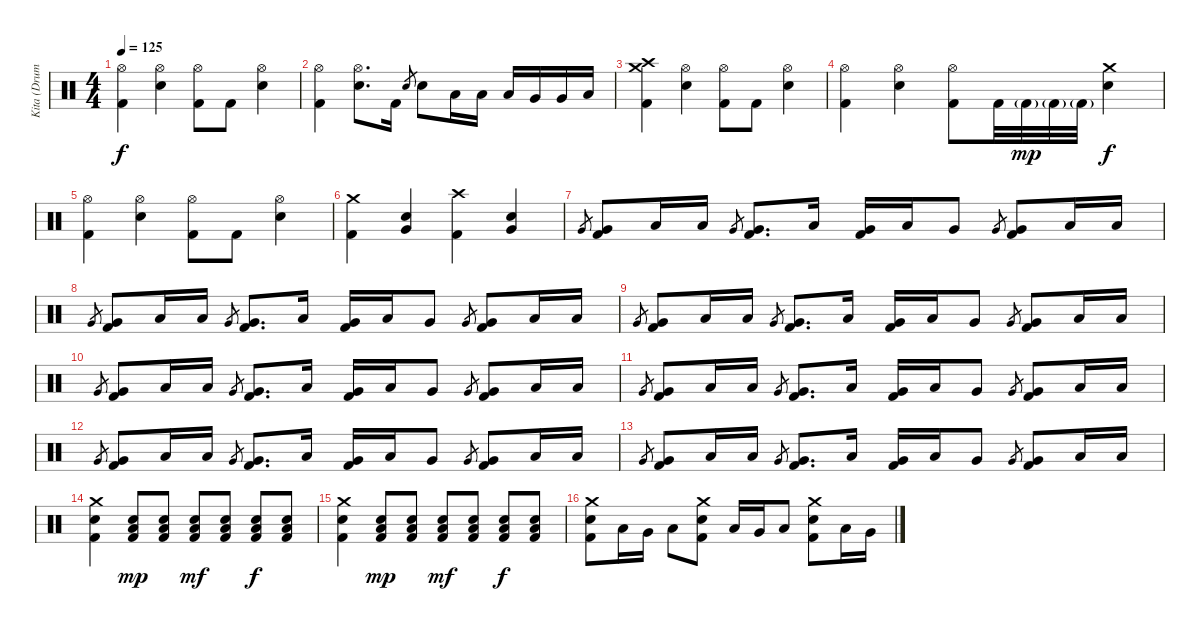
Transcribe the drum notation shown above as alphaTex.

\track ("Kita (Drums)" "Kita (Drum") {instrument percussion}
\staff {score}
\articulation defaults
\ts (4 4)
\tempo 125
\clef neutral
\ks c
("Hi-Hat (open)" "Kick (hit) 2").4{dy f} ("Hi-Hat (open)" "Electric Snare (hit)").4 ("Hi-Hat (open)" "Kick (hit) 2").8 "Kick (hit) 2".8 ("Hi-Hat (open)" "Electric Snare (hit)").4 |
("Hi-Hat (open)" "Kick (hit) 2").4 ("Hi-Hat (open)" "Electric Snare (hit)").8{d} "Kick (hit) 2".16 "Electric Snare (hit)".8{gr} "Electric Snare (hit)".8 "Low Tom (hit)".16 "Low Tom (hit)".16 "Low Tom (hit)".16 "Very Low Tom (hit)".16 "Very Low Tom (hit)".16 "Low Floor Tom (hit)".16 |
("Crash medium (hit)" "Crash high (hit)" "Kick (hit) 2").4 ("Hi-Hat (open)" "Electric Snare (hit)").4 ("Hi-Hat (open)" "Kick (hit) 2").8 "Kick (hit) 2".8 ("Hi-Hat (open)" "Electric Snare (hit)").4 |
("Hi-Hat (open)" "Kick (hit) 2").4 ("Hi-Hat (open)" "Electric Snare (hit)").4 ("Hi-Hat (open)" "Kick (hit) 2").8 "Kick (hit) 2".32 "Kick (hit) 2"{g}.32{dy mp} "Kick (hit) 2"{g}.32 "Kick (hit) 2"{g}.32 ("Crash medium (hit)" "Electric Snare (hit)").4{dy f} |
("Hi-Hat (open)" "Kick (hit) 2").4 ("Hi-Hat (open)" "Electric Snare (hit)").4 ("Hi-Hat (open)" "Kick (hit) 2").8 "Kick (hit) 2".8 ("Hi-Hat (open)" "Electric Snare (hit)").4 |
("Crash medium (hit)" "Kick (hit) 2").4 ("Very Low Tom (hit)" "Electric Snare (hit)").4 ("Crash high (hit)" "Kick (hit) 2").4 ("Very Low Tom (hit)" "Electric Snare (hit)").4 |
"Very Low Tom (hit)".8{gr} ("Very Low Tom (hit)" "Kick (hit) 2").8 "Low Floor Tom (hit)".16 "Low Floor Tom (hit)".16 "Very Low Tom (hit)".8{gr} ("Very Low Tom (hit)" "Kick (hit) 2").8{d} "Low Floor Tom (hit)".16 ("Very Low Tom (hit)" "Kick (hit) 2").16 "Low Floor Tom (hit)".16 "Very Low Tom (hit)".8 "Very Low Tom (hit)".8{gr} ("Very Low Tom (hit)" "Kick (hit) 2").8 "Low Floor Tom (hit)".16 "Low Floor Tom (hit)".16 |
"Very Low Tom (hit)".8{gr} ("Very Low Tom (hit)" "Kick (hit) 2").8 "Low Floor Tom (hit)".16 "Low Floor Tom (hit)".16 "Very Low Tom (hit)".8{gr} ("Very Low Tom (hit)" "Kick (hit) 2").8{d} "Low Floor Tom (hit)".16 ("Very Low Tom (hit)" "Kick (hit) 2").16 "Low Floor Tom (hit)".16 "Very Low Tom (hit)".8 "Very Low Tom (hit)".8{gr} ("Very Low Tom (hit)" "Kick (hit) 2").8 "Low Floor Tom (hit)".16 "Low Floor Tom (hit)".16 |
"Very Low Tom (hit)".8{gr} ("Very Low Tom (hit)" "Kick (hit) 2").8 "Low Floor Tom (hit)".16 "Low Floor Tom (hit)".16 "Very Low Tom (hit)".8{gr} ("Very Low Tom (hit)" "Kick (hit) 2").8{d} "Low Floor Tom (hit)".16 ("Very Low Tom (hit)" "Kick (hit) 2").16 "Low Floor Tom (hit)".16 "Very Low Tom (hit)".8 "Very Low Tom (hit)".8{gr} ("Very Low Tom (hit)" "Kick (hit) 2").8 "Low Floor Tom (hit)".16 "Low Floor Tom (hit)".16 |
"Very Low Tom (hit)".8{gr} ("Very Low Tom (hit)" "Kick (hit) 2").8 "Low Floor Tom (hit)".16 "Low Floor Tom (hit)".16 "Very Low Tom (hit)".8{gr} ("Very Low Tom (hit)" "Kick (hit) 2").8{d} "Low Floor Tom (hit)".16 ("Very Low Tom (hit)" "Kick (hit) 2").16 "Low Floor Tom (hit)".16 "Very Low Tom (hit)".8 "Very Low Tom (hit)".8{gr} ("Very Low Tom (hit)" "Kick (hit) 2").8 "Low Floor Tom (hit)".16 "Low Floor Tom (hit)".16 |
"Very Low Tom (hit)".8{gr} ("Very Low Tom (hit)" "Kick (hit) 2").8 "Low Floor Tom (hit)".16 "Low Floor Tom (hit)".16 "Very Low Tom (hit)".8{gr} ("Very Low Tom (hit)" "Kick (hit) 2").8{d} "Low Floor Tom (hit)".16 ("Very Low Tom (hit)" "Kick (hit) 2").16 "Low Floor Tom (hit)".16 "Very Low Tom (hit)".8 "Very Low Tom (hit)".8{gr} ("Very Low Tom (hit)" "Kick (hit) 2").8 "Low Floor Tom (hit)".16 "Low Floor Tom (hit)".16 |
"Very Low Tom (hit)".8{gr} ("Very Low Tom (hit)" "Kick (hit) 2").8 "Low Floor Tom (hit)".16 "Low Floor Tom (hit)".16 "Very Low Tom (hit)".8{gr} ("Very Low Tom (hit)" "Kick (hit) 2").8{d} "Low Floor Tom (hit)".16 ("Very Low Tom (hit)" "Kick (hit) 2").16 "Low Floor Tom (hit)".16 "Very Low Tom (hit)".8 "Very Low Tom (hit)".8{gr} ("Very Low Tom (hit)" "Kick (hit) 2").8 "Low Floor Tom (hit)".16 "Low Floor Tom (hit)".16 |
"Very Low Tom (hit)".8{gr} ("Very Low Tom (hit)" "Kick (hit) 2").8 "Low Floor Tom (hit)".16 "Low Floor Tom (hit)".16 "Very Low Tom (hit)".8{gr} ("Very Low Tom (hit)" "Kick (hit) 2").8{d} "Low Floor Tom (hit)".16 ("Very Low Tom (hit)" "Kick (hit) 2").16 "Low Floor Tom (hit)".16 "Very Low Tom (hit)".8 "Very Low Tom (hit)".8{gr} ("Very Low Tom (hit)" "Kick (hit) 2").8 "Low Floor Tom (hit)".16 "Low Floor Tom (hit)".16 |
("Crash medium (hit)" "Electric Snare (hit)" "Kick (hit) 2").4 ("Low Floor Tom (hit)" "Electric Snare (hit)" "Kick (hit) 2").8{dy mp} ("Low Floor Tom (hit)" "Electric Snare (hit)" "Kick (hit) 2").8 ("Low Floor Tom (hit)" "Electric Snare (hit)" "Kick (hit) 2").8{dy mf} ("Low Floor Tom (hit)" "Electric Snare (hit)" "Kick (hit) 2").8 ("Low Floor Tom (hit)" "Electric Snare (hit)" "Kick (hit) 2").8{dy f} ("Low Floor Tom (hit)" "Electric Snare (hit)" "Kick (hit) 2").8 |
("Crash medium (hit)" "Electric Snare (hit)" "Kick (hit) 2").4 ("Low Floor Tom (hit)" "Electric Snare (hit)" "Kick (hit) 2").8{dy mp} ("Low Floor Tom (hit)" "Electric Snare (hit)" "Kick (hit) 2").8 ("Low Floor Tom (hit)" "Electric Snare (hit)" "Kick (hit) 2").8{dy mf} ("Low Floor Tom (hit)" "Electric Snare (hit)" "Kick (hit) 2").8 ("Low Floor Tom (hit)" "Electric Snare (hit)" "Kick (hit) 2").8{dy f} ("Low Floor Tom (hit)" "Electric Snare (hit)" "Kick (hit) 2").8 |
("Crash medium (hit)" "Electric Snare (hit)" "Kick (hit) 2").8 "Low Floor Tom (hit)".16 "Very Low Tom (hit)".16 "Low Floor Tom (hit)".8 ("Crash medium (hit)" "Electric Snare (hit)" "Kick (hit) 2").8 "Low Floor Tom (hit)".16 "Very Low Tom (hit)".16 "Low Floor Tom (hit)".8 ("Crash medium (hit)" "Electric Snare (hit)" "Kick (hit) 2").8 "Low Floor Tom (hit)".16 "Very Low Tom (hit)".16
